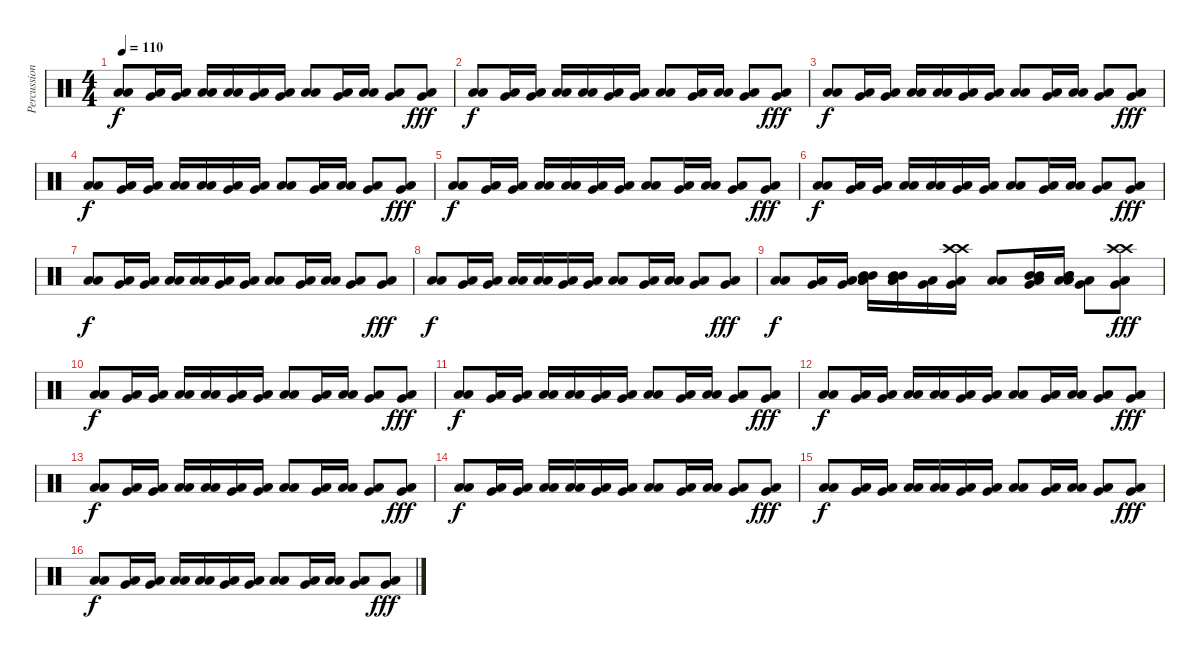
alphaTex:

\track ("Percussion" "Percussion") {instrument percussion}
\staff {score}
\articulation defaults
\ts (4 4)
\tempo 110
\clef neutral
\ks c
("Low Floor Tom (hit)" "Low Floor Tom (hit)").8{dy f} ("Low Tom (hit)" "Very Low Tom (hit)").16 ("Low Tom (hit)" "Very Low Tom (hit)").16 ("Low Floor Tom (hit)" "Low Floor Tom (hit)").16 ("Low Floor Tom (hit)" "Low Floor Tom (hit)").16 ("Low Tom (hit)" "Very Low Tom (hit)").16 ("Low Tom (hit)" "Very Low Tom (hit)").16 ("Low Floor Tom (hit)" "Low Floor Tom (hit)").8 ("Low Tom (hit)" "Very Low Tom (hit)").16 ("Low Tom (hit)" "Low Tom (hit)").16 ("Low Floor Tom (hit)" "Very Low Tom (hit)").8 ("Low Floor Tom (hit)" "Very Low Tom (hit)").8{dy fff} |
("Low Floor Tom (hit)" "Low Floor Tom (hit)").8{dy f} ("Low Tom (hit)" "Very Low Tom (hit)").16 ("Low Tom (hit)" "Very Low Tom (hit)").16 ("Low Floor Tom (hit)" "Low Floor Tom (hit)").16 ("Low Floor Tom (hit)" "Low Floor Tom (hit)").16 ("Low Tom (hit)" "Very Low Tom (hit)").16 ("Low Tom (hit)" "Very Low Tom (hit)").16 ("Low Floor Tom (hit)" "Low Floor Tom (hit)").8 ("Low Tom (hit)" "Very Low Tom (hit)").16 ("Low Tom (hit)" "Low Tom (hit)").16 ("Low Floor Tom (hit)" "Very Low Tom (hit)").8 ("Low Floor Tom (hit)" "Very Low Tom (hit)").8{dy fff} |
("Low Floor Tom (hit)" "Low Floor Tom (hit)").8{dy f} ("Low Tom (hit)" "Very Low Tom (hit)").16 ("Low Tom (hit)" "Very Low Tom (hit)").16 ("Low Floor Tom (hit)" "Low Floor Tom (hit)").16 ("Low Floor Tom (hit)" "Low Floor Tom (hit)").16 ("Low Tom (hit)" "Very Low Tom (hit)").16 ("Low Tom (hit)" "Very Low Tom (hit)").16 ("Low Floor Tom (hit)" "Low Floor Tom (hit)").8 ("Low Tom (hit)" "Very Low Tom (hit)").16 ("Low Tom (hit)" "Low Tom (hit)").16 ("Low Floor Tom (hit)" "Very Low Tom (hit)").8 ("Low Floor Tom (hit)" "Very Low Tom (hit)").8{dy fff} |
("Low Floor Tom (hit)" "Low Floor Tom (hit)").8{dy f} ("Low Tom (hit)" "Very Low Tom (hit)").16 ("Low Tom (hit)" "Very Low Tom (hit)").16 ("Low Floor Tom (hit)" "Low Floor Tom (hit)").16 ("Low Floor Tom (hit)" "Low Floor Tom (hit)").16 ("Low Tom (hit)" "Very Low Tom (hit)").16 ("Low Tom (hit)" "Very Low Tom (hit)").16 ("Low Floor Tom (hit)" "Low Floor Tom (hit)").8 ("Low Tom (hit)" "Very Low Tom (hit)").16 ("Low Tom (hit)" "Low Tom (hit)").16 ("Low Floor Tom (hit)" "Very Low Tom (hit)").8 ("Low Floor Tom (hit)" "Very Low Tom (hit)").8{dy fff} |
("Low Floor Tom (hit)" "Low Floor Tom (hit)").8{dy f} ("Low Tom (hit)" "Very Low Tom (hit)").16 ("Low Tom (hit)" "Very Low Tom (hit)").16 ("Low Floor Tom (hit)" "Low Floor Tom (hit)").16 ("Low Floor Tom (hit)" "Low Floor Tom (hit)").16 ("Low Tom (hit)" "Very Low Tom (hit)").16 ("Low Tom (hit)" "Very Low Tom (hit)").16 ("Low Floor Tom (hit)" "Low Floor Tom (hit)").8 ("Low Tom (hit)" "Very Low Tom (hit)").16 ("Low Tom (hit)" "Low Tom (hit)").16 ("Low Floor Tom (hit)" "Very Low Tom (hit)").8 ("Low Floor Tom (hit)" "Very Low Tom (hit)").8{dy fff} |
("Low Floor Tom (hit)" "Low Floor Tom (hit)").8{dy f} ("Low Tom (hit)" "Very Low Tom (hit)").16 ("Low Tom (hit)" "Very Low Tom (hit)").16 ("Low Floor Tom (hit)" "Low Floor Tom (hit)").16 ("Low Floor Tom (hit)" "Low Floor Tom (hit)").16 ("Low Tom (hit)" "Very Low Tom (hit)").16 ("Low Tom (hit)" "Very Low Tom (hit)").16 ("Low Floor Tom (hit)" "Low Floor Tom (hit)").8 ("Low Tom (hit)" "Very Low Tom (hit)").16 ("Low Tom (hit)" "Low Tom (hit)").16 ("Low Floor Tom (hit)" "Very Low Tom (hit)").8 ("Low Floor Tom (hit)" "Very Low Tom (hit)").8{dy fff} |
("Low Floor Tom (hit)" "Low Floor Tom (hit)").8{dy f} ("Low Tom (hit)" "Very Low Tom (hit)").16 ("Low Tom (hit)" "Very Low Tom (hit)").16 ("Low Floor Tom (hit)" "Low Floor Tom (hit)").16 ("Low Floor Tom (hit)" "Low Floor Tom (hit)").16 ("Low Tom (hit)" "Very Low Tom (hit)").16 ("Low Tom (hit)" "Very Low Tom (hit)").16 ("Low Floor Tom (hit)" "Low Floor Tom (hit)").8 ("Low Tom (hit)" "Very Low Tom (hit)").16 ("Low Tom (hit)" "Low Tom (hit)").16 ("Low Floor Tom (hit)" "Very Low Tom (hit)").8 ("Low Floor Tom (hit)" "Very Low Tom (hit)").8{dy fff} |
("Low Floor Tom (hit)" "Low Floor Tom (hit)").8{dy f} ("Low Tom (hit)" "Very Low Tom (hit)").16 ("Low Tom (hit)" "Very Low Tom (hit)").16 ("Low Floor Tom (hit)" "Low Floor Tom (hit)").16 ("Low Floor Tom (hit)" "Low Floor Tom (hit)").16 ("Low Tom (hit)" "Very Low Tom (hit)").16 ("Low Tom (hit)" "Very Low Tom (hit)").16 ("Low Floor Tom (hit)" "Low Floor Tom (hit)").8 ("Low Tom (hit)" "Very Low Tom (hit)").16 ("Low Tom (hit)" "Low Tom (hit)").16 ("Low Floor Tom (hit)" "Very Low Tom (hit)").8 ("Low Floor Tom (hit)" "Very Low Tom (hit)").8{dy fff} |
("Low Floor Tom (hit)" "Low Floor Tom (hit)").8{dy f} ("Low Tom (hit)" "Very Low Tom (hit)").16 ("Low Tom (hit)" "Very Low Tom (hit)").16 ("Low Floor Tom (hit)" "Low Floor Tom (hit)" "Mid Tom (hit)" "Mid Tom (hit)").16 ("Low Floor Tom (hit)" "Low Floor Tom (hit)" "Mid Tom (hit)" "Mid Tom (hit)").16 ("Low Tom (hit)" "Very Low Tom (hit)").16 ("Low Tom (hit)" "Very Low Tom (hit)" "Crash high (hit)" "Crash high (hit)").16 ("Low Floor Tom (hit)" "Low Floor Tom (hit)").8 ("Low Tom (hit)" "Very Low Tom (hit)" "Mid Tom (hit)" "Mid Tom (hit)").16 ("Low Tom (hit)" "Low Tom (hit)" "Mid Tom (hit)" "Mid Tom (hit)").16 ("Low Floor Tom (hit)" "Very Low Tom (hit)").8 ("Low Floor Tom (hit)" "Very Low Tom (hit)" "Crash high (hit)" "Crash high (hit)").8{dy fff} |
("Low Floor Tom (hit)" "Low Floor Tom (hit)").8{dy f} ("Low Tom (hit)" "Very Low Tom (hit)").16 ("Low Tom (hit)" "Very Low Tom (hit)").16 ("Low Floor Tom (hit)" "Low Floor Tom (hit)").16 ("Low Floor Tom (hit)" "Low Floor Tom (hit)").16 ("Low Tom (hit)" "Very Low Tom (hit)").16 ("Low Tom (hit)" "Very Low Tom (hit)").16 ("Low Floor Tom (hit)" "Low Floor Tom (hit)").8 ("Low Tom (hit)" "Very Low Tom (hit)").16 ("Low Tom (hit)" "Low Tom (hit)").16 ("Low Floor Tom (hit)" "Very Low Tom (hit)").8 ("Low Floor Tom (hit)" "Very Low Tom (hit)").8{dy fff} |
("Low Floor Tom (hit)" "Low Floor Tom (hit)").8{dy f} ("Low Tom (hit)" "Very Low Tom (hit)").16 ("Low Tom (hit)" "Very Low Tom (hit)").16 ("Low Floor Tom (hit)" "Low Floor Tom (hit)").16 ("Low Floor Tom (hit)" "Low Floor Tom (hit)").16 ("Low Tom (hit)" "Very Low Tom (hit)").16 ("Low Tom (hit)" "Very Low Tom (hit)").16 ("Low Floor Tom (hit)" "Low Floor Tom (hit)").8 ("Low Tom (hit)" "Very Low Tom (hit)").16 ("Low Tom (hit)" "Low Tom (hit)").16 ("Low Floor Tom (hit)" "Very Low Tom (hit)").8 ("Low Floor Tom (hit)" "Very Low Tom (hit)").8{dy fff} |
("Low Floor Tom (hit)" "Low Floor Tom (hit)").8{dy f} ("Low Tom (hit)" "Very Low Tom (hit)").16 ("Low Tom (hit)" "Very Low Tom (hit)").16 ("Low Floor Tom (hit)" "Low Floor Tom (hit)").16 ("Low Floor Tom (hit)" "Low Floor Tom (hit)").16 ("Low Tom (hit)" "Very Low Tom (hit)").16 ("Low Tom (hit)" "Very Low Tom (hit)").16 ("Low Floor Tom (hit)" "Low Floor Tom (hit)").8 ("Low Tom (hit)" "Very Low Tom (hit)").16 ("Low Tom (hit)" "Low Tom (hit)").16 ("Low Floor Tom (hit)" "Very Low Tom (hit)").8 ("Low Floor Tom (hit)" "Very Low Tom (hit)").8{dy fff} |
("Low Floor Tom (hit)" "Low Floor Tom (hit)").8{dy f} ("Low Tom (hit)" "Very Low Tom (hit)").16 ("Low Tom (hit)" "Very Low Tom (hit)").16 ("Low Floor Tom (hit)" "Low Floor Tom (hit)").16 ("Low Floor Tom (hit)" "Low Floor Tom (hit)").16 ("Low Tom (hit)" "Very Low Tom (hit)").16 ("Low Tom (hit)" "Very Low Tom (hit)").16 ("Low Floor Tom (hit)" "Low Floor Tom (hit)").8 ("Low Tom (hit)" "Very Low Tom (hit)").16 ("Low Tom (hit)" "Low Tom (hit)").16 ("Low Floor Tom (hit)" "Very Low Tom (hit)").8 ("Low Floor Tom (hit)" "Very Low Tom (hit)").8{dy fff} |
("Low Floor Tom (hit)" "Low Floor Tom (hit)").8{dy f} ("Low Tom (hit)" "Very Low Tom (hit)").16 ("Low Tom (hit)" "Very Low Tom (hit)").16 ("Low Floor Tom (hit)" "Low Floor Tom (hit)").16 ("Low Floor Tom (hit)" "Low Floor Tom (hit)").16 ("Low Tom (hit)" "Very Low Tom (hit)").16 ("Low Tom (hit)" "Very Low Tom (hit)").16 ("Low Floor Tom (hit)" "Low Floor Tom (hit)").8 ("Low Tom (hit)" "Very Low Tom (hit)").16 ("Low Tom (hit)" "Low Tom (hit)").16 ("Low Floor Tom (hit)" "Very Low Tom (hit)").8 ("Low Floor Tom (hit)" "Very Low Tom (hit)").8{dy fff} |
("Low Floor Tom (hit)" "Low Floor Tom (hit)").8{dy f} ("Low Tom (hit)" "Very Low Tom (hit)").16 ("Low Tom (hit)" "Very Low Tom (hit)").16 ("Low Floor Tom (hit)" "Low Floor Tom (hit)").16 ("Low Floor Tom (hit)" "Low Floor Tom (hit)").16 ("Low Tom (hit)" "Very Low Tom (hit)").16 ("Low Tom (hit)" "Very Low Tom (hit)").16 ("Low Floor Tom (hit)" "Low Floor Tom (hit)").8 ("Low Tom (hit)" "Very Low Tom (hit)").16 ("Low Tom (hit)" "Low Tom (hit)").16 ("Low Floor Tom (hit)" "Very Low Tom (hit)").8 ("Low Floor Tom (hit)" "Very Low Tom (hit)").8{dy fff} |
("Low Floor Tom (hit)" "Low Floor Tom (hit)").8{dy f} ("Low Tom (hit)" "Very Low Tom (hit)").16 ("Low Tom (hit)" "Very Low Tom (hit)").16 ("Low Floor Tom (hit)" "Low Floor Tom (hit)").16 ("Low Floor Tom (hit)" "Low Floor Tom (hit)").16 ("Low Tom (hit)" "Very Low Tom (hit)").16 ("Low Tom (hit)" "Very Low Tom (hit)").16 ("Low Floor Tom (hit)" "Low Floor Tom (hit)").8 ("Low Tom (hit)" "Very Low Tom (hit)").16 ("Low Tom (hit)" "Low Tom (hit)").16 ("Low Floor Tom (hit)" "Very Low Tom (hit)").8 ("Low Floor Tom (hit)" "Very Low Tom (hit)").8{dy fff}
